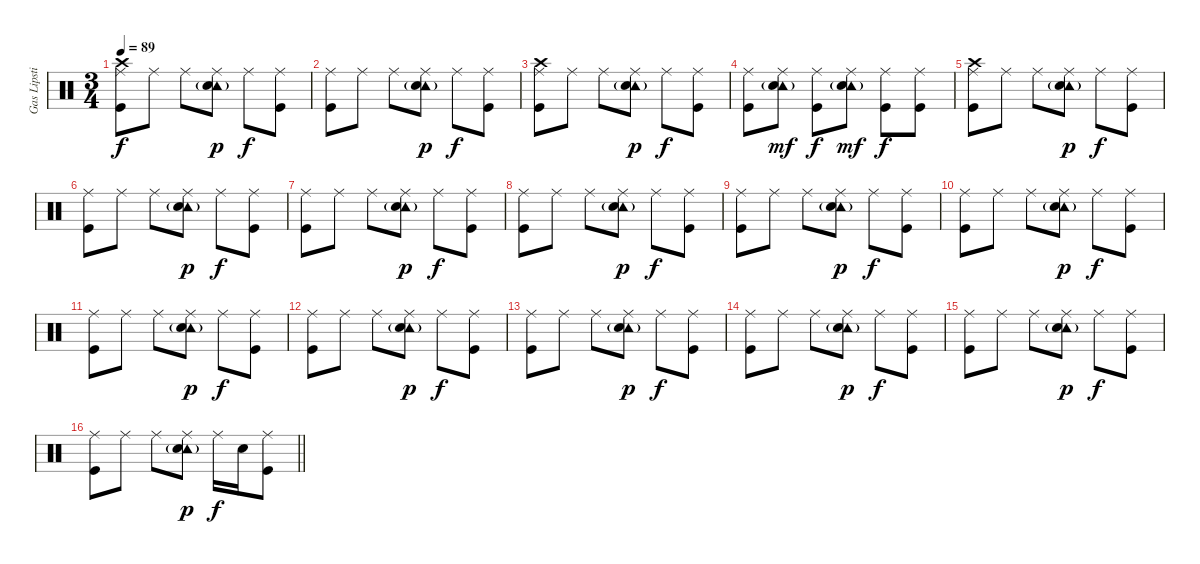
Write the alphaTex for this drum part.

\track ("Gas Lipstick (Drums)" "Gas Lipsti") {instrument percussion}
\staff {score}
\articulation defaults
\ts (3 4)
\tempo 89
\clef neutral
\ks c
("Crash high (hit)" "Ride (middle)" "Kick (hit)").8{dy f} "Ride (middle)".8 "Ride (middle)".8 ("Tambourine (hit)"{g} "Ride (middle)" "Snare (hit) 2").8{dy p} "Ride (middle)".8{dy f} ("Ride (middle)" "Kick (hit)").8 |
("Ride (middle)" "Kick (hit)").8 "Ride (middle)".8 "Ride (middle)".8 ("Tambourine (hit)"{g} "Ride (middle)" "Snare (hit) 2").8{dy p} "Ride (middle)".8{dy f} ("Ride (middle)" "Kick (hit)").8 |
("Crash high (hit)" "Ride (middle)" "Kick (hit)").8 "Ride (middle)".8 "Ride (middle)".8 ("Tambourine (hit)"{g} "Ride (middle)" "Snare (hit) 2").8{dy p} "Ride (middle)".8{dy f} ("Ride (middle)" "Kick (hit)").8 |
("Ride (middle)" "Kick (hit)").8 ("Tambourine (hit)"{g} "Ride (middle)" "Snare (hit) 2").8{dy mf} ("Ride (middle)" "Kick (hit)").8{dy f} ("Tambourine (hit)"{g} "Ride (middle)" "Snare (hit) 2").8{dy mf} ("Ride (middle)" "Kick (hit)").8{dy f} ("Ride (middle)" "Kick (hit)").8 |
("Crash high (hit)" "Ride (middle)" "Kick (hit)").8 "Ride (middle)".8 "Ride (middle)".8 ("Tambourine (hit)"{g} "Ride (middle)" "Snare (hit) 2").8{dy p} "Ride (middle)".8{dy f} ("Ride (middle)" "Kick (hit)").8 |
("Ride (middle)" "Kick (hit)").8 "Ride (middle)".8 "Ride (middle)".8 ("Tambourine (hit)"{g} "Ride (middle)" "Snare (hit) 2").8{dy p} "Ride (middle)".8{dy f} ("Ride (middle)" "Kick (hit)").8 |
("Ride (middle)" "Kick (hit)").8 "Ride (middle)".8 "Ride (middle)".8 ("Tambourine (hit)"{g} "Ride (middle)" "Snare (hit) 2").8{dy p} "Ride (middle)".8{dy f} ("Ride (middle)" "Kick (hit)").8 |
("Ride (middle)" "Kick (hit)").8 "Ride (middle)".8 "Ride (middle)".8 ("Tambourine (hit)"{g} "Ride (middle)" "Snare (hit) 2").8{dy p} "Ride (middle)".8{dy f} ("Ride (middle)" "Kick (hit)").8 |
("Ride (middle)" "Kick (hit)").8 "Ride (middle)".8 "Ride (middle)".8 ("Tambourine (hit)"{g} "Ride (middle)" "Snare (hit) 2").8{dy p} "Ride (middle)".8{dy f} ("Ride (middle)" "Kick (hit)").8 |
("Ride (middle)" "Kick (hit)").8 "Ride (middle)".8 "Ride (middle)".8 ("Tambourine (hit)"{g} "Ride (middle)" "Snare (hit) 2").8{dy p} "Ride (middle)".8{dy f} ("Ride (middle)" "Kick (hit)").8 |
("Ride (middle)" "Kick (hit)").8 "Ride (middle)".8 "Ride (middle)".8 ("Tambourine (hit)"{g} "Ride (middle)" "Snare (hit) 2").8{dy p} "Ride (middle)".8{dy f} ("Ride (middle)" "Kick (hit)").8 |
("Ride (middle)" "Kick (hit)").8 "Ride (middle)".8 "Ride (middle)".8 ("Tambourine (hit)"{g} "Ride (middle)" "Snare (hit) 2").8{dy p} "Ride (middle)".8{dy f} ("Ride (middle)" "Kick (hit)").8 |
("Ride (middle)" "Kick (hit)").8 "Ride (middle)".8 "Ride (middle)".8 ("Tambourine (hit)"{g} "Ride (middle)" "Snare (hit) 2").8{dy p} "Ride (middle)".8{dy f} ("Ride (middle)" "Kick (hit)").8 |
("Ride (middle)" "Kick (hit)").8 "Ride (middle)".8 "Ride (middle)".8 ("Tambourine (hit)"{g} "Ride (middle)" "Snare (hit) 2").8{dy p} "Ride (middle)".8{dy f} ("Ride (middle)" "Kick (hit)").8 |
("Ride (middle)" "Kick (hit)").8 "Ride (middle)".8 "Ride (middle)".8 ("Tambourine (hit)"{g} "Ride (middle)" "Snare (hit) 2").8{dy p} "Ride (middle)".8{dy f} ("Ride (middle)" "Kick (hit)").8 |
\barLineRight lightlight
("Ride (middle)" "Kick (hit)").8 "Ride (middle)".8 "Ride (middle)".8 ("Tambourine (hit)"{g} "Ride (middle)" "Snare (hit) 2").8{dy p} "Ride (middle)".16{dy f} "Snare (hit) 2".16 ("Ride (middle)" "Kick (hit)").8
